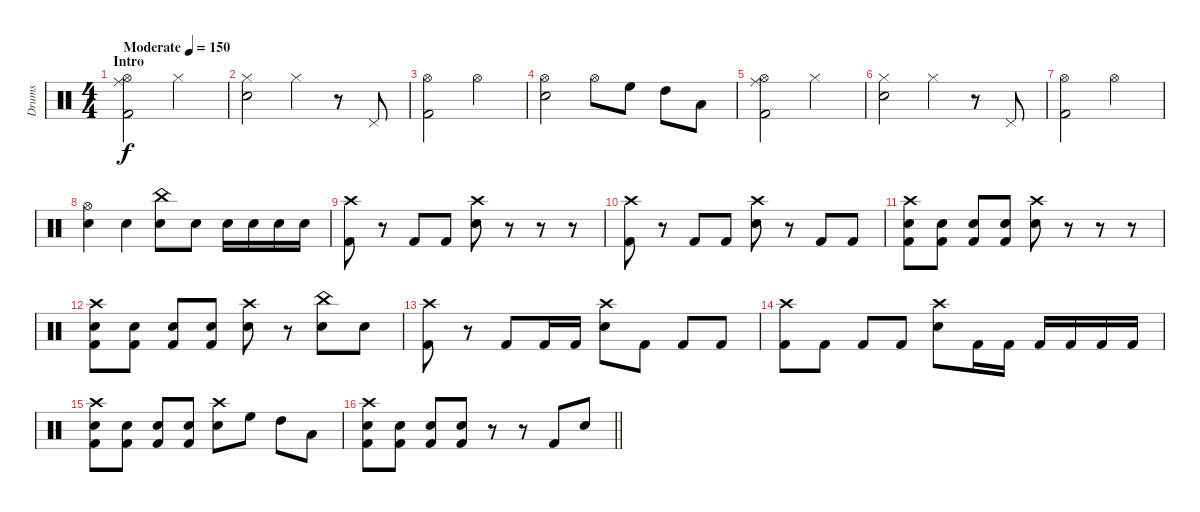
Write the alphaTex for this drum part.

\track ("Drums" "Drums") {instrument percussion}
\staff {score}
\articulation defaults
\ts (4 4)
\section ("" "Intro")
\tempo (150 "Moderate")
\clef neutral
\ks c
("Ride (middle)" "Hi-Hat (open)" "Kick (hit) 2").2{dy f} "Hi-Hat (closed)".2 |
("Hi-Hat (closed)" "Snare (hit) 2").2 "Hi-Hat (closed)".4 r.8 "Pedal Hi-Hat (hit)".8 |
("Hi-Hat (open)" "Kick (hit) 2").2 "Hi-Hat (open)".2 |
("Hi-Hat (open)" "Snare (hit) 2").2 "Hi-Hat (open)".8 "High Floor Tom (hit)".8 "High Tom (hit)".8 "Low Tom (hit)".8 |
("Ride (middle)" "Hi-Hat (open)" "Kick (hit) 2").2 "Hi-Hat (closed)".2 |
("Hi-Hat (closed)" "Snare (hit) 2").2 "Hi-Hat (closed)".4 r.8 "Pedal Hi-Hat (hit)".8 |
("Hi-Hat (open)" "Kick (hit) 2").2 "Hi-Hat (open)".2 |
("Hi-Hat (open)" "Snare (hit) 2").4 "Snare (hit) 2".4 ("China (hit)" "Snare (hit) 2").8 "Snare (hit) 2".8 "Snare (hit) 2".16 "Snare (hit) 2".16 "Snare (hit) 2".16 "Snare (hit) 2".16 |
("Crash high (hit)" "Kick (hit) 2").8 r.8 "Kick (hit) 2".8 "Kick (hit) 2".8 ("Crash high (hit)" "Snare (hit) 2").8 r.8 r.8 r.8 |
("Crash high (hit)" "Kick (hit) 2").8 r.8 "Kick (hit) 2".8 "Kick (hit) 2".8 ("Crash high (hit)" "Snare (hit) 2").8 r.8 "Kick (hit) 2".8 "Kick (hit) 2".8 |
("Crash high (hit)" "Snare (hit) 2" "Kick (hit) 2").8 ("Snare (hit) 2" "Kick (hit) 2").8 ("Snare (hit) 2" "Kick (hit) 2").8 ("Snare (hit) 2" "Kick (hit) 2").8 ("Crash high (hit)" "Snare (hit) 2").8 r.8 r.8 r.8 |
("Crash high (hit)" "Snare (hit) 2" "Kick (hit) 2").8 ("Snare (hit) 2" "Kick (hit) 2").8 ("Snare (hit) 2" "Kick (hit) 2").8 ("Snare (hit) 2" "Kick (hit) 2").8 ("Crash high (hit)" "Snare (hit) 2").8 r.8 ("China (hit)" "Snare (hit) 2").8 "Snare (hit) 2".8 |
("Crash high (hit)" "Kick (hit) 2").8 r.8 "Kick (hit) 2".8 "Kick (hit) 2".16 "Kick (hit) 2".16 ("Crash high (hit)" "Snare (hit) 2").8 "Kick (hit) 2".8 "Kick (hit) 2".8 "Kick (hit) 2".8 |
("Crash high (hit)" "Kick (hit) 2").8 "Kick (hit) 2".8 "Kick (hit) 2".8 "Kick (hit) 2".8 ("Crash high (hit)" "Snare (hit) 2").8 "Kick (hit) 2".16 "Kick (hit) 2".16 "Kick (hit) 2".16 "Kick (hit) 2".16 "Kick (hit) 2".16 "Kick (hit) 2".16 |
("Crash high (hit)" "Snare (hit) 2" "Kick (hit) 2").8 ("Snare (hit) 2" "Kick (hit) 2").8 ("Snare (hit) 2" "Kick (hit) 2").8 ("Snare (hit) 2" "Kick (hit) 2").8 ("Crash high (hit)" "Snare (hit) 2").8 "High Floor Tom (hit)".8 "High Tom (hit)".8 "Low Tom (hit)".8 |
\barLineRight lightlight
("Crash high (hit)" "Snare (hit) 2" "Kick (hit) 2").8 ("Snare (hit) 2" "Kick (hit) 2").8 ("Snare (hit) 2" "Kick (hit) 2").8 ("Snare (hit) 2" "Kick (hit) 2").8 r.8 r.8 "Kick (hit) 2".8 "Snare (hit) 2".8
